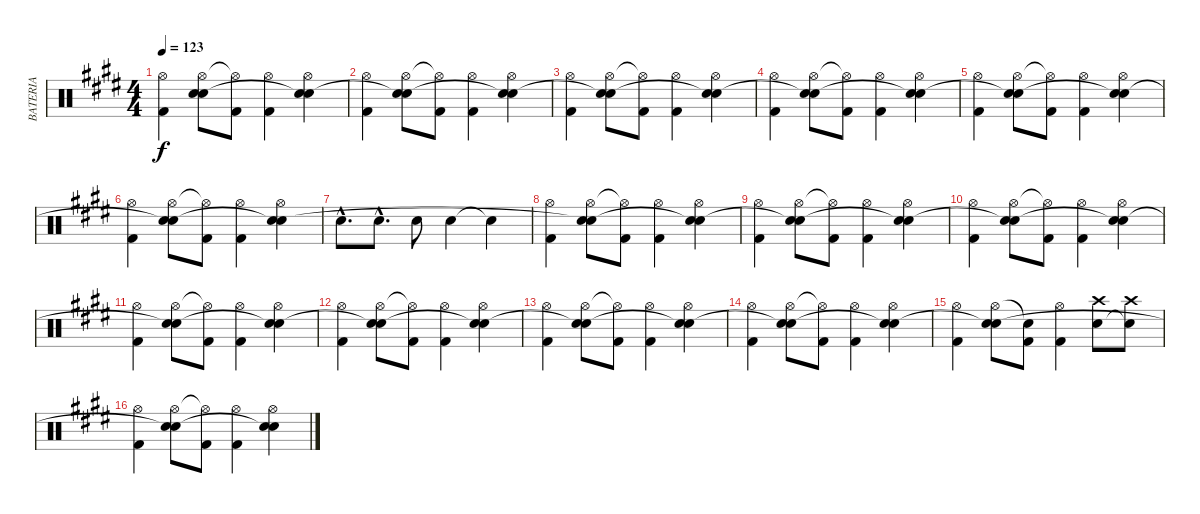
\track ("BATERIA" "BATERIA") {instrument percussion}
\staff {score}
\articulation defaults
\ts (4 4)
\tempo 123
\clef neutral
\ks c#minor
("Hi-Hat (open)" "Kick (hit) 2").4{dy f} ("Hi-Hat (open)" "Snare (hit) 2" "Snare (hit)"{t}).8 ("Hi-Hat (open)"{t} "Kick (hit) 2").8 ("Hi-Hat (open)" "Kick (hit) 2").4 ("Hi-Hat (open)" "Snare (hit) 2" "Snare (hit)"{t}).4 |
("Hi-Hat (open)" "Kick (hit) 2").4 ("Hi-Hat (open)" "Snare (hit) 2" "Snare (hit)"{t}).8 ("Hi-Hat (open)"{t} "Kick (hit) 2").8 ("Hi-Hat (open)" "Kick (hit) 2").4 ("Hi-Hat (open)" "Snare (hit) 2" "Snare (hit)"{t}).4 |
("Hi-Hat (open)" "Kick (hit) 2").4 ("Hi-Hat (open)" "Snare (hit) 2" "Snare (hit)"{t}).8 ("Hi-Hat (open)"{t} "Kick (hit) 2").8 ("Hi-Hat (open)" "Kick (hit) 2").4 ("Hi-Hat (open)" "Snare (hit) 2" "Snare (hit)"{t}).4 |
("Hi-Hat (open)" "Kick (hit) 2").4 ("Hi-Hat (open)" "Snare (hit) 2" "Snare (hit)"{t}).8 ("Hi-Hat (open)"{t} "Kick (hit) 2").8 ("Hi-Hat (open)" "Kick (hit) 2").4 ("Hi-Hat (open)" "Snare (hit) 2" "Snare (hit)"{t}).4 |
("Hi-Hat (open)" "Kick (hit) 2").4 ("Hi-Hat (open)" "Snare (hit) 2" "Snare (hit)"{t}).8 ("Hi-Hat (open)"{t} "Kick (hit) 2").8 ("Hi-Hat (open)" "Kick (hit) 2").4 ("Hi-Hat (open)" "Snare (hit) 2" "Snare (hit)"{t}).4 |
("Hi-Hat (open)" "Kick (hit) 2").4 ("Hi-Hat (open)" "Snare (hit) 2" "Snare (hit)"{t}).8 ("Hi-Hat (open)"{t} "Kick (hit) 2").8 ("Hi-Hat (open)" "Kick (hit) 2").4 ("Hi-Hat (open)" "Snare (hit) 2" "Snare (hit)"{t}).4 |
"Snare (hit) 2"{hac}.8{d} "Snare (hit) 2"{hac}.8{d} "Snare (hit) 2".8 "Snare (hit) 2".4 "Snare (hit)"{t}.4 |
("Hi-Hat (open)" "Kick (hit) 2").4 ("Hi-Hat (open)" "Snare (hit) 2" "Snare (hit)"{t}).8 ("Hi-Hat (open)"{t} "Kick (hit) 2").8 ("Hi-Hat (open)" "Kick (hit) 2").4 ("Hi-Hat (open)" "Snare (hit) 2" "Snare (hit)"{t}).4 |
("Hi-Hat (open)" "Kick (hit) 2").4 ("Hi-Hat (open)" "Snare (hit) 2" "Snare (hit)"{t}).8 ("Hi-Hat (open)"{t} "Kick (hit) 2").8 ("Hi-Hat (open)" "Kick (hit) 2").4 ("Hi-Hat (open)" "Snare (hit) 2" "Snare (hit)"{t}).4 |
("Hi-Hat (open)" "Kick (hit) 2").4 ("Hi-Hat (open)" "Snare (hit) 2" "Snare (hit)"{t}).8 ("Hi-Hat (open)"{t} "Kick (hit) 2").8 ("Hi-Hat (open)" "Kick (hit) 2").4 ("Hi-Hat (open)" "Snare (hit) 2" "Snare (hit)"{t}).4 |
("Hi-Hat (open)" "Kick (hit) 2").4 ("Hi-Hat (open)" "Snare (hit) 2" "Snare (hit)"{t}).8 ("Hi-Hat (open)"{t} "Kick (hit) 2").8 ("Hi-Hat (open)" "Kick (hit) 2").4 ("Hi-Hat (open)" "Snare (hit) 2" "Snare (hit)"{t}).4 |
("Hi-Hat (open)" "Kick (hit) 2").4 ("Hi-Hat (open)" "Snare (hit) 2" "Snare (hit)"{t}).8 ("Hi-Hat (open)"{t} "Kick (hit) 2").8 ("Hi-Hat (open)" "Kick (hit) 2").4 ("Hi-Hat (open)" "Snare (hit) 2" "Snare (hit)"{t}).4 |
("Hi-Hat (open)" "Kick (hit) 2").4 ("Hi-Hat (open)" "Snare (hit) 2" "Snare (hit)"{t}).8 ("Hi-Hat (open)"{t} "Kick (hit) 2").8 ("Hi-Hat (open)" "Kick (hit) 2").4 ("Hi-Hat (open)" "Snare (hit) 2" "Snare (hit)"{t}).4 |
("Hi-Hat (open)" "Kick (hit) 2").4 ("Hi-Hat (open)" "Snare (hit) 2" "Snare (hit)"{t}).8 ("Hi-Hat (open)"{t} "Kick (hit) 2").8 ("Hi-Hat (open)" "Kick (hit) 2").4 ("Hi-Hat (open)" "Snare (hit) 2" "Snare (hit)"{t}).4 |
("Hi-Hat (open)" "Kick (hit) 2").4 ("Hi-Hat (open)" "Snare (hit) 2" "Snare (hit)"{t}).8 ("Snare (hit)"{t} "Kick (hit) 2").8 ("Hi-Hat (open)" "Kick (hit) 2").4 ("Crash high (hit)" "Snare (hit) 2").8 ("Crash high (hit)" "Snare (hit)"{t}).8 |
("Hi-Hat (open)" "Kick (hit) 2").4 ("Hi-Hat (open)" "Snare (hit) 2" "Snare (hit)"{t}).8 ("Hi-Hat (open)"{t} "Kick (hit) 2").8 ("Hi-Hat (open)" "Kick (hit) 2").4 ("Hi-Hat (open)" "Snare (hit) 2" "Snare (hit)"{t}).4
